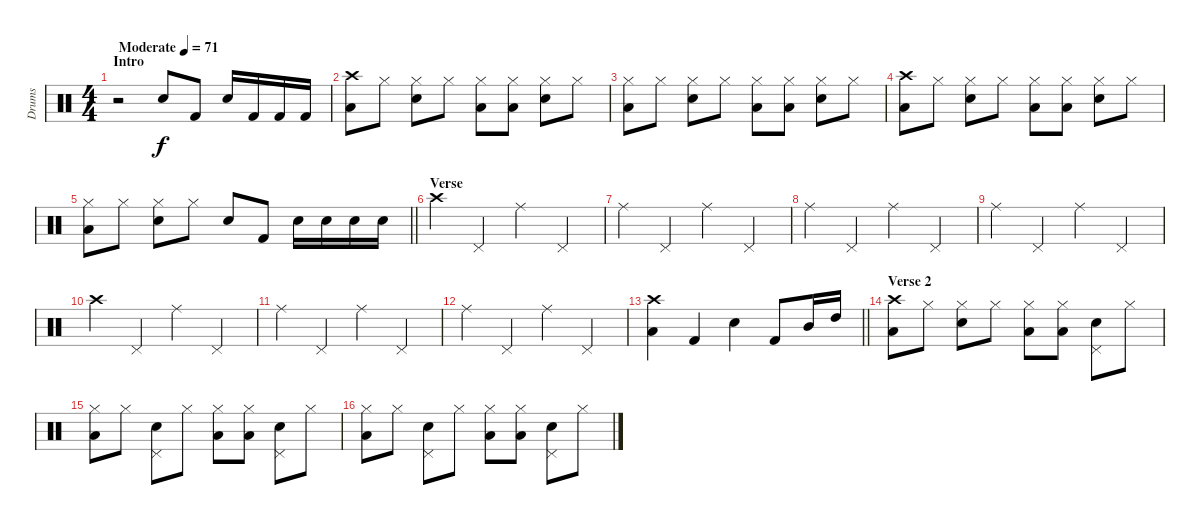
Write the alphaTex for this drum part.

\track ("Drums" "Drums") {instrument percussion}
\staff {score}
\articulation defaults
\ts (4 4)
\section ("" "Intro")
\tempo (71 "Moderate")
\clef neutral
\ks c
r.2{dy f} "Snare (hit) 2".8 "Kick (hit) 2".8 "Snare (hit) 2".16 "Kick (hit) 2".16 "Kick (hit) 2".16 "Kick (hit) 2".16 |
("Crash high (hit)" "Low Floor Tom (hit)").8 "Hi-Hat (closed)".8 ("Hi-Hat (closed)" "Snare (hit) 2").8 "Hi-Hat (closed)".8 ("Hi-Hat (closed)" "Low Floor Tom (hit)").8 ("Hi-Hat (closed)" "Low Floor Tom (hit)").8 ("Hi-Hat (closed)" "Snare (hit) 2").8 "Hi-Hat (closed)".8 |
("Hi-Hat (closed)" "Low Floor Tom (hit)").8 "Hi-Hat (closed)".8 ("Hi-Hat (closed)" "Snare (hit) 2").8 "Hi-Hat (closed)".8 ("Hi-Hat (closed)" "Low Floor Tom (hit)").8 ("Hi-Hat (closed)" "Low Floor Tom (hit)").8 ("Hi-Hat (closed)" "Snare (hit) 2").8 "Hi-Hat (closed)".8 |
("Crash high (hit)" "Low Floor Tom (hit)").8 "Hi-Hat (closed)".8 ("Hi-Hat (closed)" "Snare (hit) 2").8 "Hi-Hat (closed)".8 ("Hi-Hat (closed)" "Low Floor Tom (hit)").8 ("Hi-Hat (closed)" "Low Floor Tom (hit)").8 ("Hi-Hat (closed)" "Snare (hit) 2").8 "Hi-Hat (closed)".8 |
\barLineRight lightlight
("Hi-Hat (closed)" "Low Floor Tom (hit)").8 "Hi-Hat (closed)".8 ("Hi-Hat (closed)" "Snare (hit) 2").8 "Hi-Hat (closed)".8 "Snare (hit) 2".8 "Kick (hit) 2".8 "Snare (hit) 2".16 "Snare (hit) 2".16 "Snare (hit) 2".16 "Snare (hit) 2".16 |
\section ("" "Verse")
"Crash high (hit)".4 "Pedal Hi-Hat (hit)".4 "Ride (middle)".4 "Pedal Hi-Hat (hit)".4 |
"Ride (middle)".4 "Pedal Hi-Hat (hit)".4 "Ride (middle)".4 "Pedal Hi-Hat (hit)".4 |
"Ride (middle)".4 "Pedal Hi-Hat (hit)".4 "Ride (middle)".4 "Pedal Hi-Hat (hit)".4 |
"Ride (middle)".4 "Pedal Hi-Hat (hit)".4 "Ride (middle)".4 "Pedal Hi-Hat (hit)".4 |
"Crash high (hit)".4 "Pedal Hi-Hat (hit)".4 "Ride (middle)".4 "Pedal Hi-Hat (hit)".4 |
"Ride (middle)".4 "Pedal Hi-Hat (hit)".4 "Ride (middle)".4 "Pedal Hi-Hat (hit)".4 |
"Ride (middle)".4 "Pedal Hi-Hat (hit)".4 "Ride (middle)".4 "Pedal Hi-Hat (hit)".4 |
\barLineRight lightlight
("Crash high (hit)" "Low Floor Tom (hit)").4 "Kick (hit) 2".4 "Snare (hit) 2".4 "Kick (hit) 2".8 "Mid Tom (hit)".16 "High Tom (hit)".16 |
\section ("" "Verse 2")
("Crash high (hit)" "Low Floor Tom (hit)").8 "Hi-Hat (closed)".8 ("Hi-Hat (closed)" "Snare (hit) 2").8 "Hi-Hat (closed)".8 ("Low Floor Tom (hit)" "Hi-Hat (closed)").8 ("Hi-Hat (closed)" "Low Floor Tom (hit)").8 ("Pedal Hi-Hat (hit)" "Snare (hit) 2").8 "Hi-Hat (closed)".8 |
("Low Floor Tom (hit)" "Hi-Hat (closed)").8 "Hi-Hat (closed)".8 ("Pedal Hi-Hat (hit)" "Snare (hit) 2").8 "Hi-Hat (closed)".8 ("Low Floor Tom (hit)" "Hi-Hat (closed)").8 ("Hi-Hat (closed)" "Low Floor Tom (hit)").8 ("Pedal Hi-Hat (hit)" "Snare (hit) 2").8 "Hi-Hat (closed)".8 |
("Low Floor Tom (hit)" "Hi-Hat (closed)").8 "Hi-Hat (closed)".8 ("Pedal Hi-Hat (hit)" "Snare (hit) 2").8 "Hi-Hat (closed)".8 ("Hi-Hat (closed)" "Low Floor Tom (hit)").8 ("Hi-Hat (closed)" "Low Floor Tom (hit)").8 ("Pedal Hi-Hat (hit)" "Snare (hit) 2").8 "Hi-Hat (closed)".8
